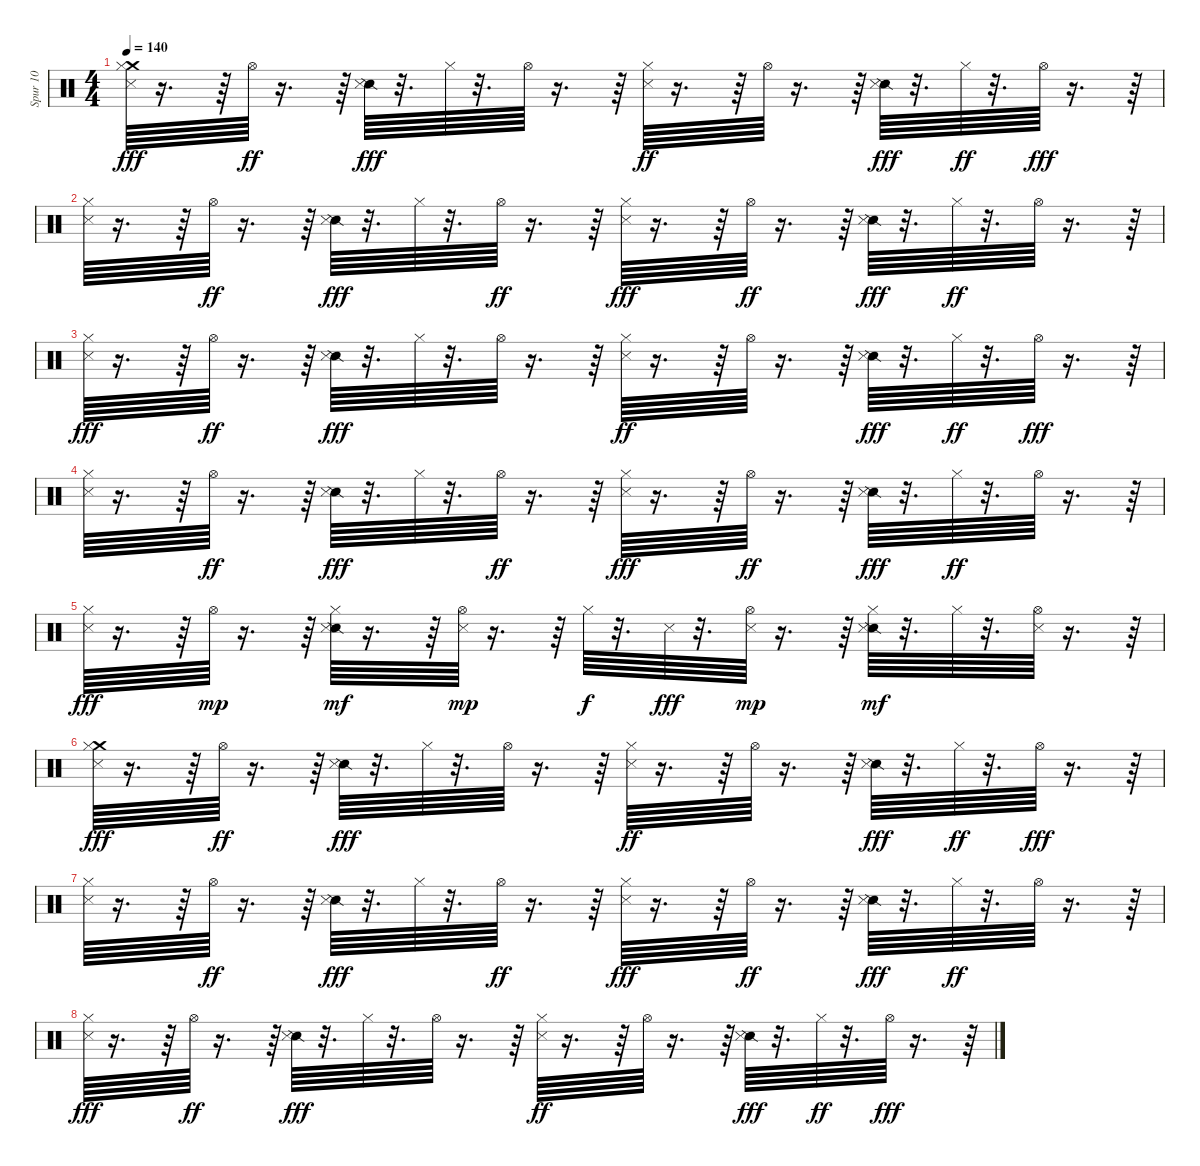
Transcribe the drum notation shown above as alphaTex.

\track ("Spur 10" "Spur 10") {instrument percussion}
\staff {score}
\articulation defaults
\ts (4 4)
\tempo 140
\clef neutral
\ks c
("Crash medium (hit)" "Metronome (hit)" "Hi-Hat (closed)").64{dy fff} r.16{d} r.64 "Hi-Hat (open)".64{dy ff} r.16{d} r.64 ("Snare (side stick) 2" "Metronome (hit)").64{dy fff} r.32{d} "Hi-Hat (closed)".64 r.32{d} "Hi-Hat (open)".64 r.16{d} r.64 ("Metronome (hit)" "Hi-Hat (closed)").64{dy ff} r.16{d} r.64 "Hi-Hat (open)".64 r.16{d} r.64 ("Snare (side stick) 2" "Metronome (hit)").64{dy fff} r.32{d} "Hi-Hat (closed)".64{dy ff} r.32{d} "Hi-Hat (open)".64{dy fff} r.16{d} r.64 |
("Metronome (hit)" "Hi-Hat (closed)").64 r.16{d} r.64 "Hi-Hat (open)".64{dy ff} r.16{d} r.64 ("Snare (side stick) 2" "Metronome (hit)").64{dy fff} r.32{d} "Hi-Hat (closed)".64 r.32{d} "Hi-Hat (open)".64{dy ff} r.16{d} r.64 ("Metronome (hit)" "Hi-Hat (closed)").64{dy fff} r.16{d} r.64 "Hi-Hat (open)".64{dy ff} r.16{d} r.64 ("Snare (side stick) 2" "Metronome (hit)").64{dy fff} r.32{d} "Hi-Hat (closed)".64{dy ff} r.32{d} "Hi-Hat (open)".64 r.16{d} r.64 |
("Metronome (hit)" "Hi-Hat (closed)").64{dy fff} r.16{d} r.64 "Hi-Hat (open)".64{dy ff} r.16{d} r.64 ("Snare (side stick) 2" "Metronome (hit)").64{dy fff} r.32{d} "Hi-Hat (closed)".64 r.32{d} "Hi-Hat (open)".64 r.16{d} r.64 ("Metronome (hit)" "Hi-Hat (closed)").64{dy ff} r.16{d} r.64 "Hi-Hat (open)".64 r.16{d} r.64 ("Snare (side stick) 2" "Metronome (hit)").64{dy fff} r.32{d} "Hi-Hat (closed)".64{dy ff} r.32{d} "Hi-Hat (open)".64{dy fff} r.16{d} r.64 |
("Metronome (hit)" "Hi-Hat (closed)").64 r.16{d} r.64 "Hi-Hat (open)".64{dy ff} r.16{d} r.64 ("Snare (side stick) 2" "Metronome (hit)").64{dy fff} r.32{d} "Hi-Hat (closed)".64 r.32{d} "Hi-Hat (open)".64{dy ff} r.16{d} r.64 ("Metronome (hit)" "Hi-Hat (closed)").64{dy fff} r.16{d} r.64 "Hi-Hat (open)".64{dy ff} r.16{d} r.64 ("Snare (side stick) 2" "Metronome (hit)").64{dy fff} r.32{d} "Hi-Hat (closed)".64{dy ff} r.32{d} "Hi-Hat (open)".64 r.16{d} r.64 |
("Metronome (hit)" "Hi-Hat (closed)").64{dy fff} r.16{d} r.64 "Hi-Hat (open)".64{dy mp} r.16{d} r.64 ("Snare (side stick) 2" "Metronome (hit)" "Hi-Hat (closed)").64{dy mf} r.16{d} r.64 ("Metronome (hit)" "Hi-Hat (open)").64{dy mp} r.16{d} r.64 "Hi-Hat (closed)".64{dy f} r.32{d} "Metronome (hit)".64{dy fff} r.32{d} ("Metronome (hit)" "Hi-Hat (open)").64{dy mp} r.16{d} r.64 ("Snare (side stick) 2" "Metronome (hit)" "Hi-Hat (closed)").64{dy mf} r.32{d} "Hi-Hat (closed)".64 r.32{d} ("Metronome (hit)" "Hi-Hat (open)").64 r.16{d} r.64 |
("Crash medium (hit)" "Metronome (hit)" "Hi-Hat (closed)").64{dy fff} r.16{d} r.64 "Hi-Hat (open)".64{dy ff} r.16{d} r.64 ("Snare (side stick) 2" "Metronome (hit)").64{dy fff} r.32{d} "Hi-Hat (closed)".64 r.32{d} "Hi-Hat (open)".64 r.16{d} r.64 ("Metronome (hit)" "Hi-Hat (closed)").64{dy ff} r.16{d} r.64 "Hi-Hat (open)".64 r.16{d} r.64 ("Snare (side stick) 2" "Metronome (hit)").64{dy fff} r.32{d} "Hi-Hat (closed)".64{dy ff} r.32{d} "Hi-Hat (open)".64{dy fff} r.16{d} r.64 |
("Metronome (hit)" "Hi-Hat (closed)").64 r.16{d} r.64 "Hi-Hat (open)".64{dy ff} r.16{d} r.64 ("Snare (side stick) 2" "Metronome (hit)").64{dy fff} r.32{d} "Hi-Hat (closed)".64 r.32{d} "Hi-Hat (open)".64{dy ff} r.16{d} r.64 ("Metronome (hit)" "Hi-Hat (closed)").64{dy fff} r.16{d} r.64 "Hi-Hat (open)".64{dy ff} r.16{d} r.64 ("Snare (side stick) 2" "Metronome (hit)").64{dy fff} r.32{d} "Hi-Hat (closed)".64{dy ff} r.32{d} "Hi-Hat (open)".64 r.16{d} r.64 |
("Metronome (hit)" "Hi-Hat (closed)").64{dy fff} r.16{d} r.64 "Hi-Hat (open)".64{dy ff} r.16{d} r.64 ("Snare (side stick) 2" "Metronome (hit)").64{dy fff} r.32{d} "Hi-Hat (closed)".64 r.32{d} "Hi-Hat (open)".64 r.16{d} r.64 ("Metronome (hit)" "Hi-Hat (closed)").64{dy ff} r.16{d} r.64 "Hi-Hat (open)".64 r.16{d} r.64 ("Snare (side stick) 2" "Metronome (hit)").64{dy fff} r.32{d} "Hi-Hat (closed)".64{dy ff} r.32{d} "Hi-Hat (open)".64{dy fff} r.16{d} r.64
